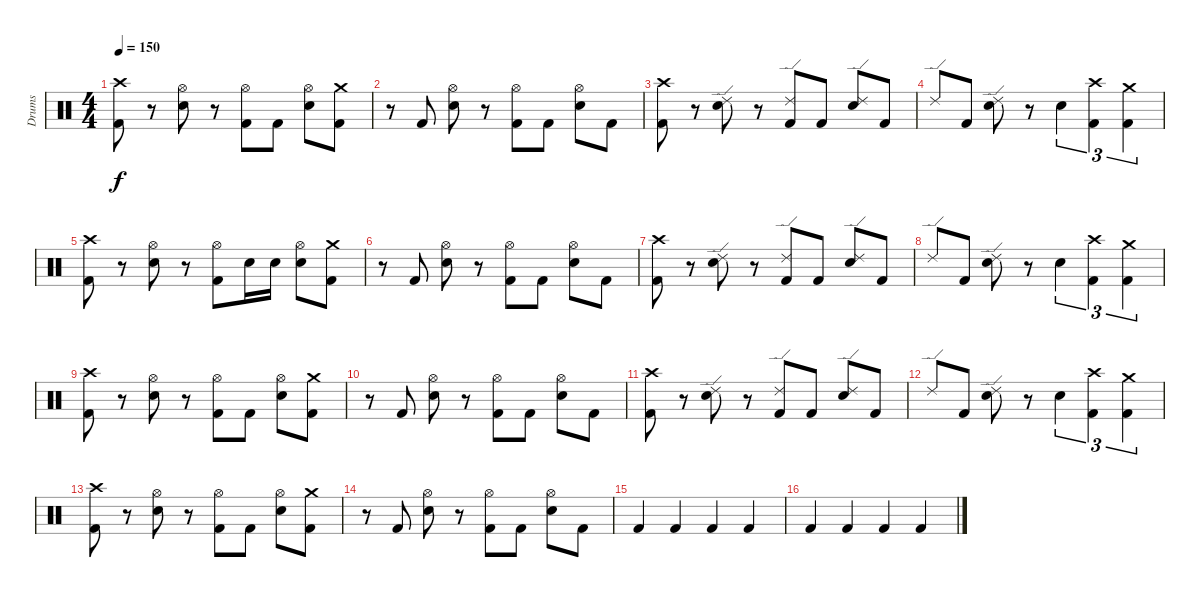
\track ("Drums" "Drums") {instrument percussion}
\staff {score}
\articulation defaults
\ts (4 4)
\tempo 150
\clef neutral
\ks c
("Crash high (hit)" "Kick (hit) 2").8{dy f} r.8 ("Hi-Hat (open)" "Snare (hit) 2").8 r.8 ("Hi-Hat (open)" "Kick (hit) 2").8 "Kick (hit) 2".8 ("Hi-Hat (open)" "Snare (hit) 2").8 ("Crash medium (hit)" "Kick (hit) 2").8 |
r.8 "Kick (hit) 2".8 ("Hi-Hat (open)" "Snare (hit) 2").8 r.8 ("Hi-Hat (open)" "Kick (hit) 2").8 "Kick (hit) 2".8 ("Hi-Hat (open)" "Snare (hit) 2").8 "Kick (hit) 2".8 |
("Crash high (hit)" "Kick (hit) 2").8 r.8 ("Ride (edge) 2" "Snare (hit) 2").8 r.8 ("Ride (edge) 2" "Kick (hit) 2").8 "Kick (hit) 2".8 ("Ride (edge) 2" "Snare (hit) 2").8 "Kick (hit) 2".8 |
"Ride (edge) 2".8 "Kick (hit) 2".8 ("Ride (edge) 2" "Snare (hit) 2").8 r.8 "Snare (hit) 2".4{tu (3 2)} ("Crash high (hit)" "Kick (hit) 2").4{tu (3 2)} ("Crash medium (hit)" "Kick (hit) 2").4{tu (3 2)} |
("Crash high (hit)" "Kick (hit) 2").8 r.8 ("Hi-Hat (open)" "Snare (hit) 2").8 r.8 ("Hi-Hat (open)" "Kick (hit) 2").8 "Snare (hit) 2".16 "Snare (hit) 2".16 ("Hi-Hat (open)" "Snare (hit) 2").8 ("Crash medium (hit)" "Kick (hit) 2").8 |
r.8 "Kick (hit) 2".8 ("Hi-Hat (open)" "Snare (hit) 2").8 r.8 ("Hi-Hat (open)" "Kick (hit) 2").8 "Kick (hit) 2".8 ("Hi-Hat (open)" "Snare (hit) 2").8 "Kick (hit) 2".8 |
("Crash high (hit)" "Kick (hit) 2").8 r.8 ("Ride (edge) 2" "Snare (hit) 2").8 r.8 ("Ride (edge) 2" "Kick (hit) 2").8 "Kick (hit) 2".8 ("Ride (edge) 2" "Snare (hit) 2").8 "Kick (hit) 2".8 |
"Ride (edge) 2".8 "Kick (hit) 2".8 ("Ride (edge) 2" "Snare (hit) 2").8 r.8 "Snare (hit) 2".4{tu (3 2)} ("Crash high (hit)" "Kick (hit) 2").4{tu (3 2)} ("Crash medium (hit)" "Kick (hit) 2").4{tu (3 2)} |
("Crash high (hit)" "Kick (hit) 2").8 r.8 ("Hi-Hat (open)" "Snare (hit) 2").8 r.8 ("Hi-Hat (open)" "Kick (hit) 2").8 "Kick (hit) 2".8 ("Hi-Hat (open)" "Snare (hit) 2").8 ("Crash medium (hit)" "Kick (hit) 2").8 |
r.8 "Kick (hit) 2".8 ("Hi-Hat (open)" "Snare (hit) 2").8 r.8 ("Hi-Hat (open)" "Kick (hit) 2").8 "Kick (hit) 2".8 ("Hi-Hat (open)" "Snare (hit) 2").8 "Kick (hit) 2".8 |
("Crash high (hit)" "Kick (hit) 2").8 r.8 ("Ride (edge) 2" "Snare (hit) 2").8 r.8 ("Ride (edge) 2" "Kick (hit) 2").8 "Kick (hit) 2".8 ("Ride (edge) 2" "Snare (hit) 2").8 "Kick (hit) 2".8 |
"Ride (edge) 2".8 "Kick (hit) 2".8 ("Ride (edge) 2" "Snare (hit) 2").8 r.8 "Snare (hit) 2".4{tu (3 2)} ("Crash high (hit)" "Kick (hit) 2").4{tu (3 2)} ("Crash medium (hit)" "Kick (hit) 2").4{tu (3 2)} |
("Crash high (hit)" "Kick (hit) 2").8 r.8 ("Hi-Hat (open)" "Snare (hit) 2").8 r.8 ("Hi-Hat (open)" "Kick (hit) 2").8 "Kick (hit) 2".8 ("Hi-Hat (open)" "Snare (hit) 2").8 ("Crash medium (hit)" "Kick (hit) 2").8 |
r.8 "Kick (hit) 2".8 ("Hi-Hat (open)" "Snare (hit) 2").8 r.8 ("Hi-Hat (open)" "Kick (hit) 2").8 "Kick (hit) 2".8 ("Hi-Hat (open)" "Snare (hit) 2").8 "Kick (hit) 2".8 |
\section ("" "")
"Kick (hit) 2".4 "Kick (hit) 2".4 "Kick (hit) 2".4 "Kick (hit) 2".4 |
"Kick (hit) 2".4 "Kick (hit) 2".4 "Kick (hit) 2".4 "Kick (hit) 2".4
